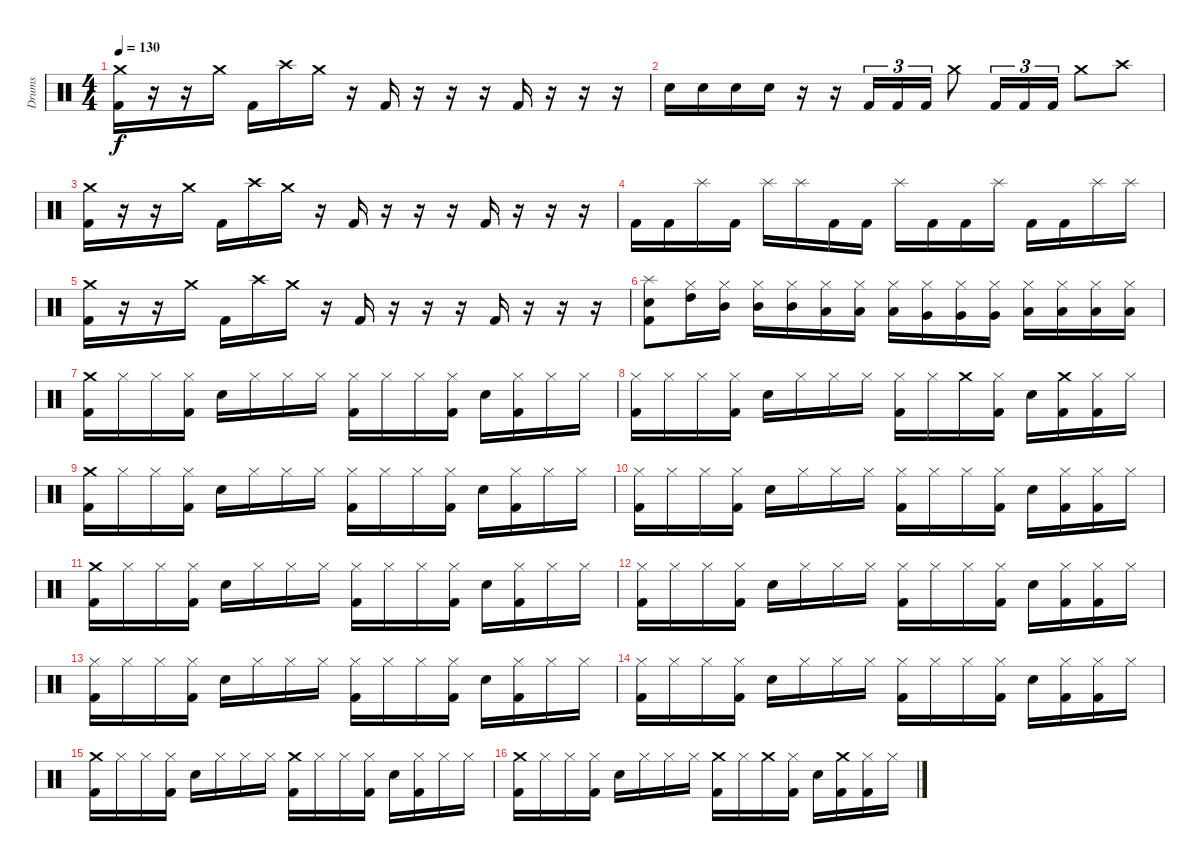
\track ("Drums" "Drums") {instrument percussion}
\staff {score}
\articulation defaults
\ts (4 4)
\tempo 130
\clef neutral
\ks c
("Crash medium (hit)" "Kick (hit) 2").16{dy f} r.16 r.16 "Crash medium (hit)".16 "Kick (hit) 2".16 "Crash high (hit)".16 "Crash medium (hit)".16 r.16 "Kick (hit) 2".16 r.16 r.16 r.16 "Kick (hit) 2".16 r.16 r.16 r.16 |
"Snare (hit) 2".16 "Snare (hit) 2".16 "Snare (hit) 2".16 "Snare (hit) 2".16 r.16 r.16 "Kick (hit) 2".16{tu (3 2)} "Kick (hit) 2".16{tu (3 2)} "Kick (hit) 2".16{tu (3 2)} "Crash medium (hit)".8 "Kick (hit) 2".16{tu (3 2)} "Kick (hit) 2".16{tu (3 2)} "Kick (hit) 2".16{tu (3 2)} "Crash medium (hit)".8 "Crash high (hit)".8 |
("Crash medium (hit)" "Kick (hit) 2").16 r.16 r.16 "Crash medium (hit)".16 "Kick (hit) 2".16 "Crash high (hit)".16 "Crash medium (hit)".16 r.16 "Kick (hit) 2".16 r.16 r.16 r.16 "Kick (hit) 2".16 r.16 r.16 r.16 |
"Kick (hit) 2".16 "Kick (hit) 2".16 "Splash (hit)".16 "Kick (hit) 2".16 "Splash (hit)".16 "Splash (hit)".16 "Kick (hit) 2".16 "Kick (hit) 2".16 "Splash (hit)".16 "Kick (hit) 2".16 "Kick (hit) 2".16 "Splash (hit)".16 "Kick (hit) 2".16 "Kick (hit) 2".16 "Splash (hit)".16 "Splash (hit)".16 |
("Crash medium (hit)" "Kick (hit) 2").16 r.16 r.16 "Crash medium (hit)".16 "Kick (hit) 2".16 "Crash high (hit)".16 "Crash medium (hit)".16 r.16 "Kick (hit) 2".16 r.16 r.16 r.16 "Kick (hit) 2".16 r.16 r.16 r.16 |
("Splash (hit)" "Snare (hit) 2" "Kick (hit) 2").8 ("Hi-Hat (closed)" "High Tom (hit)").16 ("Hi-Hat (closed)" "Mid Tom (hit)").16 ("Hi-Hat (closed)" "Mid Tom (hit)").16 ("Hi-Hat (closed)" "Mid Tom (hit)").16 ("Hi-Hat (closed)" "Low Tom (hit)").16 ("Hi-Hat (closed)" "Low Tom (hit)").16 ("Hi-Hat (closed)" "Low Tom (hit)").16 ("Hi-Hat (closed)" "Very Low Tom (hit)").16 ("Hi-Hat (closed)" "Very Low Tom (hit)").16 ("Hi-Hat (closed)" "Very Low Tom (hit)").16 ("Hi-Hat (closed)" "Low Floor Tom (hit)").16 ("Hi-Hat (closed)" "Low Floor Tom (hit)").16 ("Hi-Hat (closed)" "Low Floor Tom (hit)").16 ("Hi-Hat (closed)" "Low Floor Tom (hit)").16 |
("Crash medium (hit)" "Kick (hit) 2").16 "Hi-Hat (closed)".16 "Hi-Hat (closed)".16 ("Hi-Hat (closed)" "Kick (hit) 2").16 "Snare (hit) 2".16 "Hi-Hat (closed)".16 "Hi-Hat (closed)".16 "Hi-Hat (closed)".16 ("Hi-Hat (closed)" "Kick (hit) 2").16 "Hi-Hat (closed)".16 "Hi-Hat (closed)".16 ("Hi-Hat (closed)" "Kick (hit) 2").16 "Snare (hit) 2".16 ("Hi-Hat (closed)" "Kick (hit) 2").16 "Hi-Hat (closed)".16 "Hi-Hat (closed)".16 |
("Hi-Hat (closed)" "Kick (hit) 2").16 "Hi-Hat (closed)".16 "Hi-Hat (closed)".16 ("Hi-Hat (closed)" "Kick (hit) 2").16 "Snare (hit) 2".16 "Hi-Hat (closed)".16 "Hi-Hat (closed)".16 "Hi-Hat (closed)".16 ("Hi-Hat (closed)" "Kick (hit) 2").16 "Hi-Hat (closed)".16 "Crash medium (hit)".16 ("Hi-Hat (closed)" "Kick (hit) 2").16 "Snare (hit) 2".16 ("Crash medium (hit)" "Kick (hit) 2").16 ("Hi-Hat (closed)" "Kick (hit) 2").16 "Hi-Hat (closed)".16 |
("Crash medium (hit)" "Kick (hit) 2").16 "Hi-Hat (closed)".16 "Hi-Hat (closed)".16 ("Hi-Hat (closed)" "Kick (hit) 2").16 "Snare (hit) 2".16 "Hi-Hat (closed)".16 "Hi-Hat (closed)".16 "Hi-Hat (closed)".16 ("Hi-Hat (closed)" "Kick (hit) 2").16 "Hi-Hat (closed)".16 "Hi-Hat (closed)".16 ("Hi-Hat (closed)" "Kick (hit) 2").16 "Snare (hit) 2".16 ("Hi-Hat (closed)" "Kick (hit) 2").16 "Hi-Hat (closed)".16 "Hi-Hat (closed)".16 |
("Hi-Hat (closed)" "Kick (hit) 2").16 "Hi-Hat (closed)".16 "Hi-Hat (closed)".16 ("Hi-Hat (closed)" "Kick (hit) 2").16 "Snare (hit) 2".16 "Hi-Hat (closed)".16 "Hi-Hat (closed)".16 "Hi-Hat (closed)".16 ("Hi-Hat (closed)" "Kick (hit) 2").16 "Hi-Hat (closed)".16 "Hi-Hat (closed)".16 ("Hi-Hat (closed)" "Kick (hit) 2").16 "Snare (hit) 2".16 ("Hi-Hat (closed)" "Kick (hit) 2").16 ("Hi-Hat (closed)" "Kick (hit) 2").16 "Hi-Hat (closed)".16 |
("Crash medium (hit)" "Kick (hit) 2").16 "Hi-Hat (closed)".16 "Hi-Hat (closed)".16 ("Hi-Hat (closed)" "Kick (hit) 2").16 "Snare (hit) 2".16 "Hi-Hat (closed)".16 "Hi-Hat (closed)".16 "Hi-Hat (closed)".16 ("Hi-Hat (closed)" "Kick (hit) 2").16 "Hi-Hat (closed)".16 "Hi-Hat (closed)".16 ("Hi-Hat (closed)" "Kick (hit) 2").16 "Snare (hit) 2".16 ("Hi-Hat (closed)" "Kick (hit) 2").16 "Hi-Hat (closed)".16 "Hi-Hat (closed)".16 |
("Hi-Hat (closed)" "Kick (hit) 2").16 "Hi-Hat (closed)".16 "Hi-Hat (closed)".16 ("Hi-Hat (closed)" "Kick (hit) 2").16 "Snare (hit) 2".16 "Hi-Hat (closed)".16 "Hi-Hat (closed)".16 "Hi-Hat (closed)".16 ("Hi-Hat (closed)" "Kick (hit) 2").16 "Hi-Hat (closed)".16 "Hi-Hat (closed)".16 ("Hi-Hat (closed)" "Kick (hit) 2").16 "Snare (hit) 2".16 ("Hi-Hat (closed)" "Kick (hit) 2").16 ("Hi-Hat (closed)" "Kick (hit) 2").16 "Hi-Hat (closed)".16 |
("Hi-Hat (closed)" "Kick (hit) 2").16 "Hi-Hat (closed)".16 "Hi-Hat (closed)".16 ("Hi-Hat (closed)" "Kick (hit) 2").16 "Snare (hit) 2".16 "Hi-Hat (closed)".16 "Hi-Hat (closed)".16 "Hi-Hat (closed)".16 ("Hi-Hat (closed)" "Kick (hit) 2").16 "Hi-Hat (closed)".16 "Hi-Hat (closed)".16 ("Hi-Hat (closed)" "Kick (hit) 2").16 "Snare (hit) 2".16 ("Hi-Hat (closed)" "Kick (hit) 2").16 "Hi-Hat (closed)".16 "Hi-Hat (closed)".16 |
("Hi-Hat (closed)" "Kick (hit) 2").16 "Hi-Hat (closed)".16 "Hi-Hat (closed)".16 ("Hi-Hat (closed)" "Kick (hit) 2").16 "Snare (hit) 2".16 "Hi-Hat (closed)".16 "Hi-Hat (closed)".16 "Hi-Hat (closed)".16 ("Hi-Hat (closed)" "Kick (hit) 2").16 "Hi-Hat (closed)".16 "Hi-Hat (closed)".16 ("Hi-Hat (closed)" "Kick (hit) 2").16 "Snare (hit) 2".16 ("Hi-Hat (closed)" "Kick (hit) 2").16 ("Hi-Hat (closed)" "Kick (hit) 2").16 "Hi-Hat (closed)".16 |
("Crash medium (hit)" "Kick (hit) 2").16 "Hi-Hat (closed)".16 "Hi-Hat (closed)".16 ("Hi-Hat (closed)" "Kick (hit) 2").16 "Snare (hit) 2".16 "Hi-Hat (closed)".16 "Hi-Hat (closed)".16 "Hi-Hat (closed)".16 ("Crash medium (hit)" "Kick (hit) 2").16 "Hi-Hat (closed)".16 "Hi-Hat (closed)".16 ("Hi-Hat (closed)" "Kick (hit) 2").16 "Snare (hit) 2".16 ("Hi-Hat (closed)" "Kick (hit) 2").16 "Hi-Hat (closed)".16 "Hi-Hat (closed)".16 |
("Crash medium (hit)" "Kick (hit) 2").16 "Hi-Hat (closed)".16 "Hi-Hat (closed)".16 ("Hi-Hat (closed)" "Kick (hit) 2").16 "Snare (hit) 2".16 "Hi-Hat (closed)".16 "Hi-Hat (closed)".16 "Hi-Hat (closed)".16 ("Crash medium (hit)" "Kick (hit) 2").16 "Hi-Hat (closed)".16 "Crash medium (hit)".16 ("Hi-Hat (closed)" "Kick (hit) 2").16 "Snare (hit) 2".16 ("Crash medium (hit)" "Kick (hit) 2").16 ("Hi-Hat (closed)" "Kick (hit) 2").16 "Hi-Hat (closed)".16
